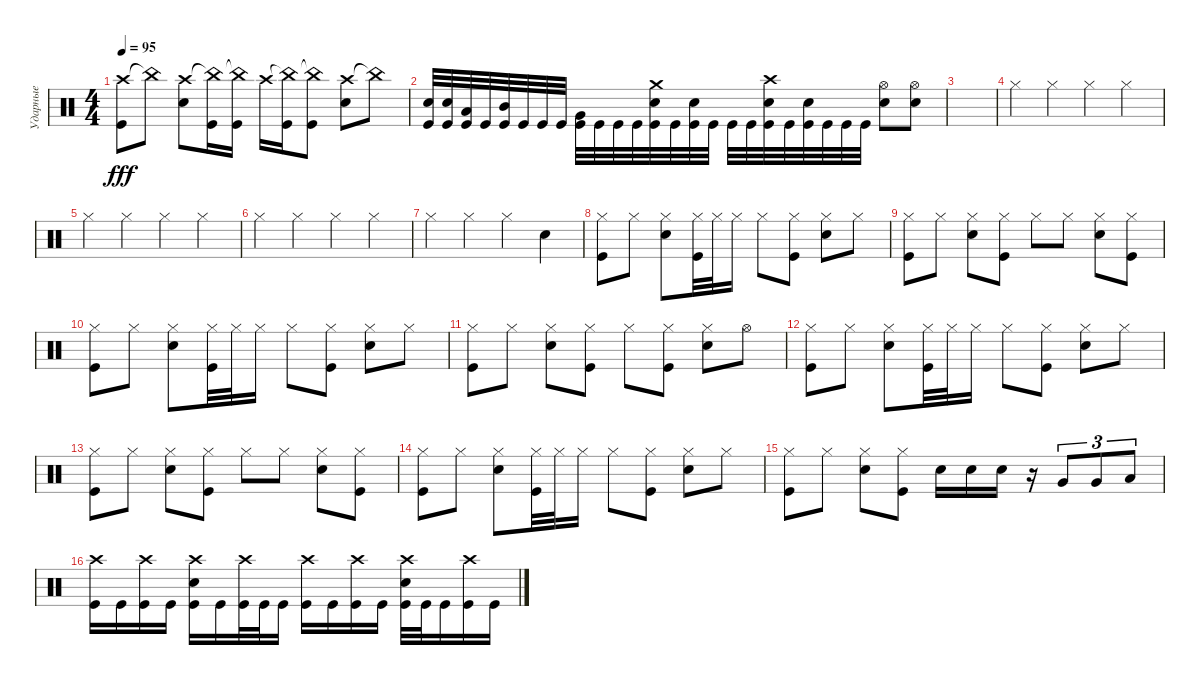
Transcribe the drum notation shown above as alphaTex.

\track ("Ударные" "Ударные") {instrument percussion}
\staff {score}
\articulation defaults
\ts (4 4)
\tempo 95
\clef neutral
\ks c
("Crash high (hit)" "Kick (hit)").8{dy fff} "China (hit)"{t}.8 ("Crash high (hit)" "Snare (hit) 2").8 ("China (hit)"{t} "Kick (hit)").16 ("China (hit)"{t} "Kick (hit)").16 "Crash high (hit)".16 ("China (hit)"{t} "Kick (hit)").16 ("China (hit)"{t} "Kick (hit)").8 ("Crash high (hit)" "Snare (hit) 2").8 "China (hit)"{t}.8 |
("Snare (hit) 2" "Kick (hit)").32 ("Snare (hit) 2" "Kick (hit)").32 ("Low Tom (hit)" "Kick (hit)").32 "Kick (hit)".32 ("Mid Tom (hit)" "Kick (hit)").32 "Kick (hit)".32 "Kick (hit)".32 "Kick (hit)".32 ("Very Low Tom (hit)" "Kick (hit)").32 "Kick (hit)".32 "Kick (hit)".32 "Kick (hit)".32 ("Crash medium (hit)" "Snare (hit) 2" "Kick (hit)").32 "Kick (hit)".32 ("Snare (hit) 2" "Kick (hit)").32 "Kick (hit)".32 "Kick (hit)".32 "Kick (hit)".32 ("Crash high (hit)" "Snare (hit) 2" "Kick (hit)").32 "Kick (hit)".32 ("Snare (hit) 2" "Kick (hit)").32 "Kick (hit)".32 "Kick (hit)".32 "Kick (hit)".32 ("Hi-Hat (open)" "Snare (hit) 2").8 ("Hi-Hat (open)" "Snare (hit) 2").8 |
|
"Hi-Hat (closed)".4 "Hi-Hat (closed)".4 "Hi-Hat (closed)".4 "Hi-Hat (closed)".4 |
"Hi-Hat (closed)".4 "Hi-Hat (closed)".4 "Hi-Hat (closed)".4 "Hi-Hat (closed)".4 |
"Hi-Hat (closed)".4 "Hi-Hat (closed)".4 "Hi-Hat (closed)".4 "Hi-Hat (closed)".4 |
"Hi-Hat (closed)".4 "Hi-Hat (closed)".4 "Hi-Hat (closed)".4 "Snare (hit) 2".4 |
("Hi-Hat (closed)" "Kick (hit)").8 "Hi-Hat (closed)".8 ("Hi-Hat (closed)" "Snare (hit) 2").8 ("Hi-Hat (closed)" "Kick (hit)").32 "Hi-Hat (closed)".32 "Hi-Hat (closed)".16 "Hi-Hat (closed)".8 ("Hi-Hat (closed)" "Kick (hit)").8 ("Hi-Hat (closed)" "Snare (hit) 2").8 "Hi-Hat (closed)".8 |
("Hi-Hat (closed)" "Kick (hit)").8 "Hi-Hat (closed)".8 ("Hi-Hat (closed)" "Snare (hit) 2").8 ("Hi-Hat (closed)" "Kick (hit)").8 "Hi-Hat (closed)".8 "Hi-Hat (closed)".8 ("Hi-Hat (closed)" "Snare (hit) 2").8 ("Hi-Hat (closed)" "Kick (hit)").8 |
("Hi-Hat (closed)" "Kick (hit)").8 "Hi-Hat (closed)".8 ("Hi-Hat (closed)" "Snare (hit) 2").8 ("Hi-Hat (closed)" "Kick (hit)").32 "Hi-Hat (closed)".32 "Hi-Hat (closed)".16 "Hi-Hat (closed)".8 ("Hi-Hat (closed)" "Kick (hit)").8 ("Hi-Hat (closed)" "Snare (hit) 2").8 "Hi-Hat (closed)".8 |
("Hi-Hat (closed)" "Kick (hit)").8 "Hi-Hat (closed)".8 ("Hi-Hat (closed)" "Snare (hit) 2").8 ("Hi-Hat (closed)" "Kick (hit)").8 "Hi-Hat (closed)".8 ("Hi-Hat (closed)" "Kick (hit)").8 ("Hi-Hat (closed)" "Snare (hit) 2").8 "Hi-Hat (open)".8 |
("Hi-Hat (closed)" "Kick (hit)").8 "Hi-Hat (closed)".8 ("Hi-Hat (closed)" "Snare (hit) 2").8 ("Hi-Hat (closed)" "Kick (hit)").32 "Hi-Hat (closed)".32 "Hi-Hat (closed)".16 "Hi-Hat (closed)".8 ("Hi-Hat (closed)" "Kick (hit)").8 ("Hi-Hat (closed)" "Snare (hit) 2").8 "Hi-Hat (closed)".8 |
("Hi-Hat (closed)" "Kick (hit)").8 "Hi-Hat (closed)".8 ("Hi-Hat (closed)" "Snare (hit) 2").8 ("Hi-Hat (closed)" "Kick (hit)").8 "Hi-Hat (closed)".8 "Hi-Hat (closed)".8 ("Hi-Hat (closed)" "Snare (hit) 2").8 ("Hi-Hat (closed)" "Kick (hit)").8 |
("Hi-Hat (closed)" "Kick (hit)").8 "Hi-Hat (closed)".8 ("Hi-Hat (closed)" "Snare (hit) 2").8 ("Hi-Hat (closed)" "Kick (hit)").32 "Hi-Hat (closed)".32 "Hi-Hat (closed)".16 "Hi-Hat (closed)".8 ("Hi-Hat (closed)" "Kick (hit)").8 ("Hi-Hat (closed)" "Snare (hit) 2").8 "Hi-Hat (closed)".8 |
("Hi-Hat (closed)" "Kick (hit)").8 "Hi-Hat (closed)".8 ("Hi-Hat (closed)" "Snare (hit) 2").8 ("Hi-Hat (closed)" "Kick (hit)").8 "Snare (hit) 2".16{volume 16} "Snare (hit) 2".16 "Snare (hit) 2".16 r.16 "Very Low Tom (hit)".8{tu (3 2)} "Very Low Tom (hit)".8{tu (3 2)} "Low Floor Tom (hit)".8{tu (3 2)} |
("Crash high (hit)" "Kick (hit)").16 "Kick (hit)".16 ("Crash high (hit)" "Kick (hit)").16 "Kick (hit)".16 ("Crash high (hit)" "Snare (hit) 2" "Kick (hit)").16 "Kick (hit)".16 ("Crash high (hit)" "Kick (hit)").32 "Kick (hit)".32 "Kick (hit)".16 ("Crash high (hit)" "Kick (hit)").16 "Kick (hit)".16 ("Crash high (hit)" "Kick (hit)").16 "Kick (hit)".16 ("Crash high (hit)" "Snare (hit) 2" "Kick (hit)").32 "Kick (hit)".32 "Kick (hit)".16 ("Crash high (hit)" "Kick (hit)").16 "Kick (hit)".16
